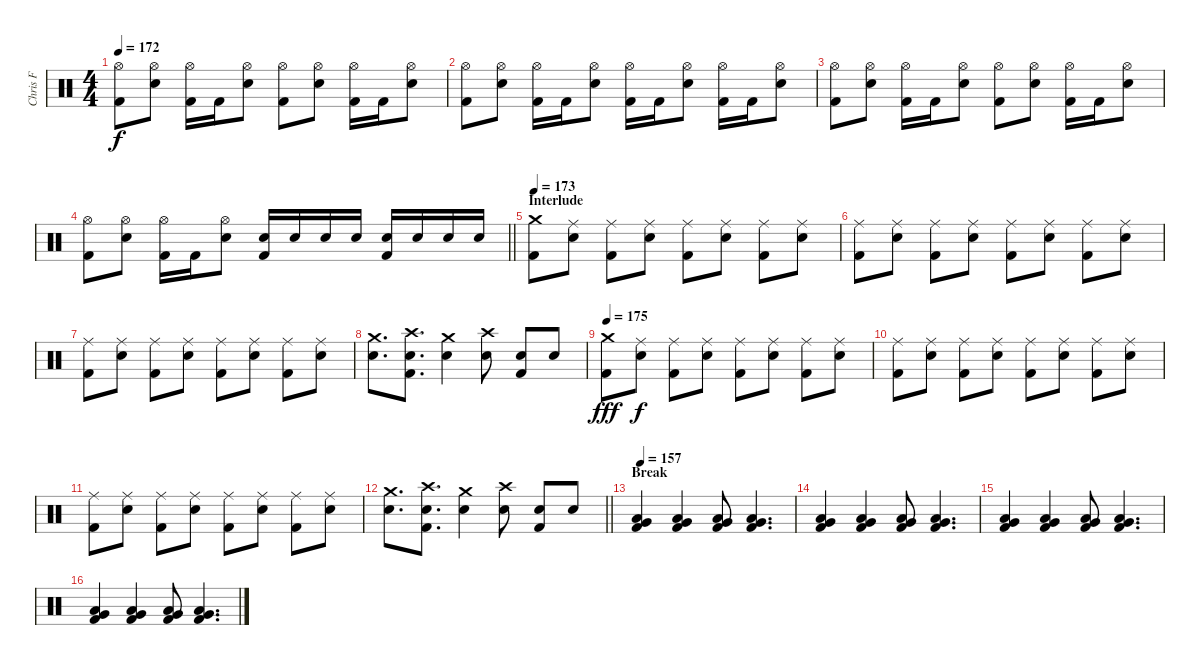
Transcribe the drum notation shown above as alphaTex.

\track ("Chris F" "Chris F") {instrument percussion}
\staff {score}
\articulation defaults
\ts (4 4)
\tempo 172
\clef neutral
\ks c
("Hi-Hat (open)" "Kick (hit) 2").8{dy f} ("Hi-Hat (open)" "Electric Snare (hit)").8 ("Hi-Hat (open)" "Kick (hit) 2").16 "Kick (hit) 2".16 ("Hi-Hat (open)" "Electric Snare (hit)").8 ("Hi-Hat (open)" "Kick (hit) 2").8 ("Hi-Hat (open)" "Electric Snare (hit)").8 ("Hi-Hat (open)" "Kick (hit) 2").16 "Kick (hit) 2".16 ("Hi-Hat (open)" "Electric Snare (hit)").8 |
("Hi-Hat (open)" "Kick (hit) 2").8 ("Hi-Hat (open)" "Electric Snare (hit)").8 ("Hi-Hat (open)" "Kick (hit) 2").16 "Kick (hit) 2".16 ("Hi-Hat (open)" "Electric Snare (hit)").8 ("Hi-Hat (open)" "Kick (hit) 2").16 "Kick (hit) 2".16 ("Hi-Hat (open)" "Electric Snare (hit)").8 ("Hi-Hat (open)" "Kick (hit) 2").16 "Kick (hit) 2".16 ("Hi-Hat (open)" "Electric Snare (hit)").8 |
("Hi-Hat (open)" "Kick (hit) 2").8 ("Hi-Hat (open)" "Electric Snare (hit)").8 ("Hi-Hat (open)" "Kick (hit) 2").16 "Kick (hit) 2".16 ("Hi-Hat (open)" "Electric Snare (hit)").8 ("Hi-Hat (open)" "Kick (hit) 2").8 ("Hi-Hat (open)" "Electric Snare (hit)").8 ("Hi-Hat (open)" "Kick (hit) 2").16 "Kick (hit) 2".16 ("Hi-Hat (open)" "Electric Snare (hit)").8 |
\barLineRight lightlight
("Hi-Hat (open)" "Kick (hit) 2").8 ("Hi-Hat (open)" "Electric Snare (hit)").8 ("Hi-Hat (open)" "Kick (hit) 2").16 "Kick (hit) 2".16 ("Hi-Hat (open)" "Electric Snare (hit)").8 ("Electric Snare (hit)" "Kick (hit) 2").16 "Electric Snare (hit)".16 "Electric Snare (hit)".16 "Electric Snare (hit)".16 ("Electric Snare (hit)" "Kick (hit) 2").16 "Electric Snare (hit)".16 "Electric Snare (hit)".16 "Electric Snare (hit)".16 |
\section ("" "Interlude")
\tempo 173
("Crash medium (hit)" "Kick (hit) 2").8 ("Ride (middle)" "Electric Snare (hit)").8 ("Ride (middle)" "Kick (hit) 2").8 ("Ride (middle)" "Electric Snare (hit)").8 ("Ride (middle)" "Kick (hit) 2").8 ("Ride (middle)" "Electric Snare (hit)").8 ("Ride (middle)" "Kick (hit) 2").8 ("Ride (middle)" "Electric Snare (hit)").8 |
("Ride (middle)" "Kick (hit) 2").8 ("Ride (middle)" "Electric Snare (hit)").8 ("Ride (middle)" "Kick (hit) 2").8 ("Ride (middle)" "Electric Snare (hit)").8 ("Ride (middle)" "Kick (hit) 2").8 ("Ride (middle)" "Electric Snare (hit)").8 ("Ride (middle)" "Kick (hit) 2").8 ("Ride (middle)" "Electric Snare (hit)").8 |
("Ride (middle)" "Kick (hit) 2").8 ("Ride (middle)" "Electric Snare (hit)").8 ("Ride (middle)" "Kick (hit) 2").8 ("Ride (middle)" "Electric Snare (hit)").8 ("Ride (middle)" "Kick (hit) 2").8 ("Ride (middle)" "Electric Snare (hit)").8 ("Ride (middle)" "Kick (hit) 2").8 ("Ride (middle)" "Electric Snare (hit)").8 |
("Crash medium (hit)" "Electric Snare (hit)").8{d} ("Crash high (hit)" "Electric Snare (hit)" "Kick (hit) 2").8{d} ("Crash medium (hit)" "Electric Snare (hit)").4 ("Crash high (hit)" "Electric Snare (hit)").8 ("Electric Snare (hit)" "Kick (hit) 2").8 "Electric Snare (hit)".8 |
\tempo 175
("Crash medium (hit)" "Kick (hit) 2").8{dy fff} ("Ride (middle)" "Electric Snare (hit)").8{dy f} ("Ride (middle)" "Kick (hit) 2").8 ("Ride (middle)" "Electric Snare (hit)").8 ("Ride (middle)" "Kick (hit) 2").8 ("Ride (middle)" "Electric Snare (hit)").8 ("Ride (middle)" "Kick (hit) 2").8 ("Ride (middle)" "Electric Snare (hit)").8 |
("Ride (middle)" "Kick (hit) 2").8 ("Ride (middle)" "Electric Snare (hit)").8 ("Ride (middle)" "Kick (hit) 2").8 ("Ride (middle)" "Electric Snare (hit)").8 ("Ride (middle)" "Kick (hit) 2").8 ("Ride (middle)" "Electric Snare (hit)").8 ("Ride (middle)" "Kick (hit) 2").8 ("Ride (middle)" "Electric Snare (hit)").8 |
("Ride (middle)" "Kick (hit) 2").8 ("Ride (middle)" "Electric Snare (hit)").8 ("Ride (middle)" "Kick (hit) 2").8 ("Ride (middle)" "Electric Snare (hit)").8 ("Ride (middle)" "Kick (hit) 2").8 ("Ride (middle)" "Electric Snare (hit)").8 ("Ride (middle)" "Kick (hit) 2").8 ("Ride (middle)" "Electric Snare (hit)").8 |
\barLineRight lightlight
("Crash medium (hit)" "Electric Snare (hit)").8{d} ("Crash high (hit)" "Electric Snare (hit)" "Kick (hit) 2").8{d} ("Crash medium (hit)" "Electric Snare (hit)").4 ("Crash high (hit)" "Electric Snare (hit)").8 ("Electric Snare (hit)" "Kick (hit) 2").8 "Electric Snare (hit)".8 |
\section ("" "Break")
\tempo 157
("Very Low Tom (hit)" "Low Floor Tom (hit)" "Kick (hit) 2").4 ("Very Low Tom (hit)" "Low Floor Tom (hit)" "Kick (hit) 2").4 ("Very Low Tom (hit)" "Low Floor Tom (hit)" "Kick (hit) 2").8 ("Very Low Tom (hit)" "Low Floor Tom (hit)" "Kick (hit) 2").4{d} |
("Very Low Tom (hit)" "Low Floor Tom (hit)" "Kick (hit) 2").4 ("Very Low Tom (hit)" "Low Floor Tom (hit)" "Kick (hit) 2").4 ("Very Low Tom (hit)" "Low Floor Tom (hit)" "Kick (hit) 2").8 ("Very Low Tom (hit)" "Low Floor Tom (hit)" "Kick (hit) 2").4{d} |
("Very Low Tom (hit)" "Low Floor Tom (hit)" "Kick (hit) 2").4 ("Very Low Tom (hit)" "Low Floor Tom (hit)" "Kick (hit) 2").4 ("Very Low Tom (hit)" "Low Floor Tom (hit)" "Kick (hit) 2").8 ("Very Low Tom (hit)" "Low Floor Tom (hit)" "Kick (hit) 2").4{d} |
("Very Low Tom (hit)" "Low Floor Tom (hit)" "Kick (hit) 2").4 ("Very Low Tom (hit)" "Low Floor Tom (hit)" "Kick (hit) 2").4 ("Very Low Tom (hit)" "Low Floor Tom (hit)" "Kick (hit) 2").8 ("Very Low Tom (hit)" "Low Floor Tom (hit)" "Kick (hit) 2").4{d}
